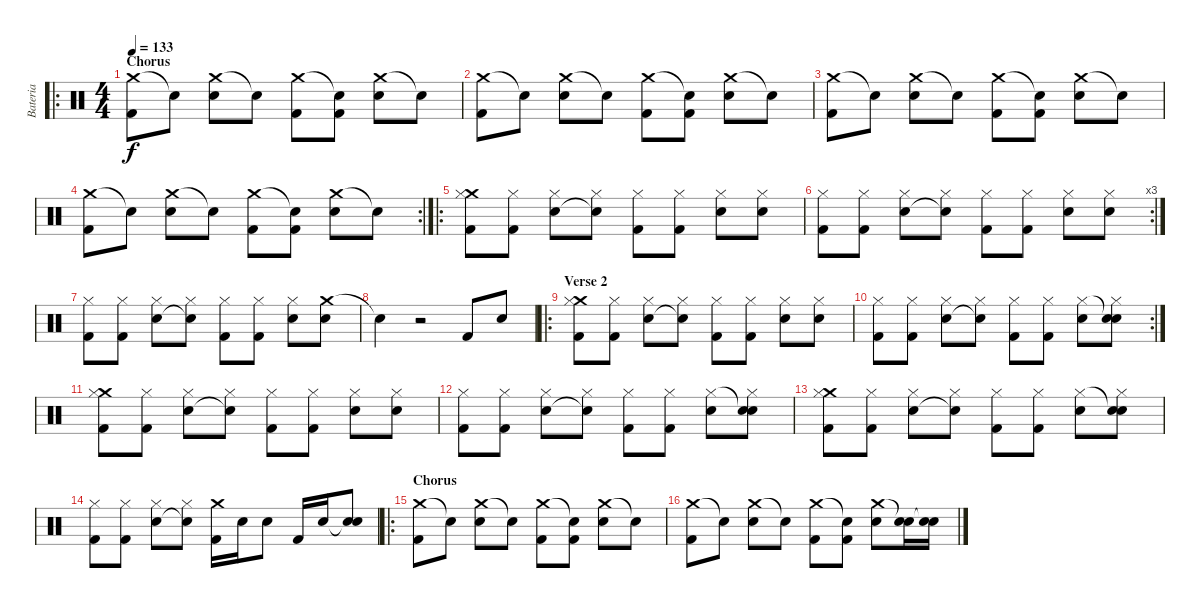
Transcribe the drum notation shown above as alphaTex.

\track ("Bateria" "Bateria") {instrument percussion}
\staff {score}
\articulation defaults
\ro
\ts (4 4)
\section ("" "Chorus")
\tempo 133
\clef neutral
\ks c
("Crash medium (hit)" "Kick (hit) 2").8{dy f} "Snare (hit)"{t}.8 ("Crash medium (hit)" "Electric Snare (hit)").8 "Snare (hit)"{t}.8 ("Crash medium (hit)" "Kick (hit) 2").8 ("Snare (hit)"{t} "Kick (hit) 2").8 ("Crash medium (hit)" "Electric Snare (hit)").8 "Snare (hit)"{t}.8 |
("Crash medium (hit)" "Kick (hit) 2").8 "Snare (hit)"{t}.8 ("Crash medium (hit)" "Electric Snare (hit)").8 "Snare (hit)"{t}.8 ("Crash medium (hit)" "Kick (hit) 2").8 ("Snare (hit)"{t} "Kick (hit) 2").8 ("Crash medium (hit)" "Electric Snare (hit)").8 "Snare (hit)"{t}.8 |
("Crash medium (hit)" "Kick (hit) 2").8 "Snare (hit)"{t}.8 ("Crash medium (hit)" "Electric Snare (hit)").8 "Snare (hit)"{t}.8 ("Crash medium (hit)" "Kick (hit) 2").8 ("Snare (hit)"{t} "Kick (hit) 2").8 ("Crash medium (hit)" "Electric Snare (hit)").8 "Snare (hit)"{t}.8 |
\rc 2
("Crash medium (hit)" "Kick (hit) 2").8 "Snare (hit)"{t}.8 ("Crash medium (hit)" "Electric Snare (hit)").8 "Snare (hit)"{t}.8 ("Crash medium (hit)" "Kick (hit) 2").8 ("Snare (hit)"{t} "Kick (hit) 2").8 ("Crash medium (hit)" "Electric Snare (hit)").8 "Snare (hit)"{t}.8 |
\ro
("Crash medium (hit)" "Hi-Hat (closed)" "Kick (hit) 2").8 ("Hi-Hat (closed)" "Kick (hit) 2").8 ("Hi-Hat (closed)" "Electric Snare (hit)").8 ("Hi-Hat (closed)" "Snare (hit) 2"{t}).8 ("Hi-Hat (closed)" "Kick (hit) 2").8 ("Hi-Hat (closed)" "Kick (hit) 2").8 ("Hi-Hat (closed)" "Electric Snare (hit)").8 ("Hi-Hat (closed)" "Electric Snare (hit)").8 |
\rc 3
("Hi-Hat (closed)" "Kick (hit) 2").8 ("Hi-Hat (closed)" "Kick (hit) 2").8 ("Hi-Hat (closed)" "Electric Snare (hit)").8 ("Hi-Hat (closed)" "Snare (hit) 2"{t}).8 ("Hi-Hat (closed)" "Kick (hit) 2").8 ("Hi-Hat (closed)" "Kick (hit) 2").8 ("Hi-Hat (closed)" "Electric Snare (hit)").8 ("Hi-Hat (closed)" "Electric Snare (hit)").8 |
("Hi-Hat (closed)" "Kick (hit) 2").8 ("Hi-Hat (closed)" "Kick (hit) 2").8 ("Hi-Hat (closed)" "Electric Snare (hit)").8 ("Hi-Hat (closed)" "Snare (hit) 2"{t}).8 ("Hi-Hat (closed)" "Kick (hit) 2").8 ("Hi-Hat (closed)" "Kick (hit) 2").8 ("Hi-Hat (closed)" "Electric Snare (hit)").8 ("Crash medium (hit)" "Electric Snare (hit)").8 |
"Snare (hit)"{t}.4 r.2 "Kick (hit) 2".8 "Electric Snare (hit)".8 |
\ro
\section ("" "Verse 2")
("Crash medium (hit)" "Hi-Hat (closed)" "Kick (hit) 2").8 ("Hi-Hat (closed)" "Kick (hit) 2").8 ("Hi-Hat (closed)" "Electric Snare (hit)").8 ("Hi-Hat (closed)" "Snare (hit) 2"{t}).8 ("Hi-Hat (closed)" "Kick (hit) 2").8 ("Hi-Hat (closed)" "Kick (hit) 2").8 ("Hi-Hat (closed)" "Electric Snare (hit)").8 ("Hi-Hat (closed)" "Electric Snare (hit)").8 |
\rc 2
("Hi-Hat (closed)" "Kick (hit) 2").8 ("Hi-Hat (closed)" "Kick (hit) 2").8 ("Hi-Hat (closed)" "Electric Snare (hit)").8 ("Hi-Hat (closed)" "Snare (hit) 2"{t}).8 ("Hi-Hat (closed)" "Kick (hit) 2").8 ("Hi-Hat (closed)" "Kick (hit) 2").8 ("Hi-Hat (closed)" "Electric Snare (hit)").8 ("Snare (hit)"{t} "Hi-Hat (closed)" "Electric Snare (hit)").8 |
("Crash medium (hit)" "Hi-Hat (closed)" "Kick (hit) 2").8 ("Hi-Hat (closed)" "Kick (hit) 2").8 ("Hi-Hat (closed)" "Electric Snare (hit)").8 ("Hi-Hat (closed)" "Snare (hit) 2"{t}).8 ("Hi-Hat (closed)" "Kick (hit) 2").8 ("Hi-Hat (closed)" "Kick (hit) 2").8 ("Hi-Hat (closed)" "Electric Snare (hit)").8 ("Hi-Hat (closed)" "Electric Snare (hit)").8 |
("Hi-Hat (closed)" "Kick (hit) 2").8 ("Hi-Hat (closed)" "Kick (hit) 2").8 ("Hi-Hat (closed)" "Electric Snare (hit)").8 ("Hi-Hat (closed)" "Snare (hit) 2"{t}).8 ("Hi-Hat (closed)" "Kick (hit) 2").8 ("Hi-Hat (closed)" "Kick (hit) 2").8 ("Hi-Hat (closed)" "Electric Snare (hit)").8 ("Snare (hit)"{t} "Hi-Hat (closed)" "Electric Snare (hit)").8 |
("Crash medium (hit)" "Hi-Hat (closed)" "Kick (hit) 2").8 ("Hi-Hat (closed)" "Kick (hit) 2").8 ("Hi-Hat (closed)" "Electric Snare (hit)").8 ("Hi-Hat (closed)" "Snare (hit) 2"{t}).8 ("Hi-Hat (closed)" "Kick (hit) 2").8 ("Hi-Hat (closed)" "Kick (hit) 2").8 ("Hi-Hat (closed)" "Electric Snare (hit)").8 ("Snare (hit)"{t} "Hi-Hat (closed)" "Electric Snare (hit)").8 |
("Hi-Hat (closed)" "Kick (hit) 2").8 ("Hi-Hat (closed)" "Kick (hit) 2").8 ("Hi-Hat (closed)" "Electric Snare (hit)").8 ("Hi-Hat (closed)" "Snare (hit) 2"{t}).8 ("Crash medium (hit)" "Kick (hit) 2").16 "Electric Snare (hit)".16 "Electric Snare (hit)".8 "Kick (hit) 2".16 "Electric Snare (hit)".16 ("Snare (hit)"{t} "Electric Snare (hit)").8 |
\ro
\section ("" "Chorus")
("Crash medium (hit)" "Kick (hit) 2").8 "Snare (hit)"{t}.8 ("Crash medium (hit)" "Electric Snare (hit)").8 "Snare (hit)"{t}.8 ("Crash medium (hit)" "Kick (hit) 2").8 ("Snare (hit)"{t} "Kick (hit) 2").8 ("Crash medium (hit)" "Electric Snare (hit)").8 "Snare (hit)"{t}.8 |
("Crash medium (hit)" "Kick (hit) 2").8 "Snare (hit)"{t}.8 ("Crash medium (hit)" "Electric Snare (hit)").8 "Snare (hit)"{t}.8 ("Crash medium (hit)" "Kick (hit) 2").8 ("Snare (hit)"{t} "Kick (hit) 2").8 ("Crash medium (hit)" "Electric Snare (hit)").8 ("Snare (hit)"{t} "Electric Snare (hit)").16 ("Snare (hit)"{t} "Electric Snare (hit)").16
